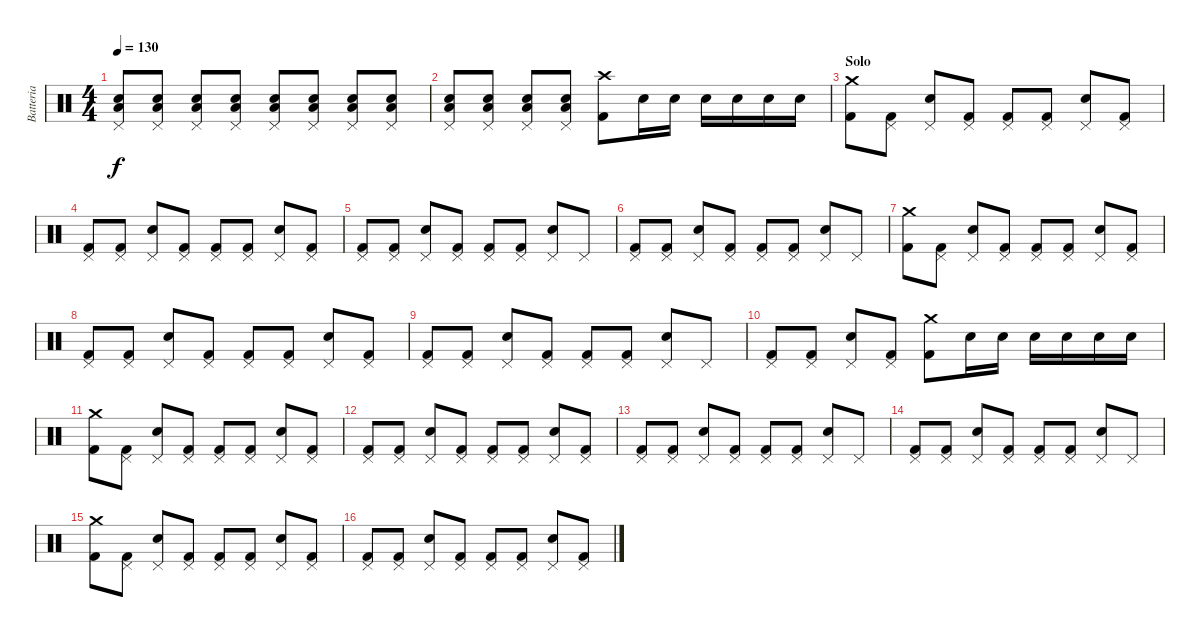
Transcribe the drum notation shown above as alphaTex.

\track ("Batteria" "Batteria") {instrument percussion}
\staff {score}
\articulation defaults
\ts (4 4)
\tempo 130
\clef neutral
\ks c
("Pedal Hi-Hat (hit)" "Electric Snare (hit)" "Low Tom (hit)").8{dy f} ("Pedal Hi-Hat (hit)" "Electric Snare (hit)" "Low Tom (hit)").8 ("Pedal Hi-Hat (hit)" "Electric Snare (hit)" "Low Tom (hit)").8 ("Pedal Hi-Hat (hit)" "Electric Snare (hit)" "Low Tom (hit)").8 ("Pedal Hi-Hat (hit)" "Electric Snare (hit)" "Low Tom (hit)").8 ("Pedal Hi-Hat (hit)" "Electric Snare (hit)" "Low Tom (hit)").8 ("Pedal Hi-Hat (hit)" "Electric Snare (hit)" "Low Tom (hit)").8 ("Pedal Hi-Hat (hit)" "Electric Snare (hit)" "Low Tom (hit)").8 |
("Pedal Hi-Hat (hit)" "Electric Snare (hit)" "Low Tom (hit)").8 ("Pedal Hi-Hat (hit)" "Electric Snare (hit)" "Low Tom (hit)").8 ("Pedal Hi-Hat (hit)" "Electric Snare (hit)" "Low Tom (hit)").8 ("Pedal Hi-Hat (hit)" "Electric Snare (hit)" "Low Tom (hit)").8 ("Crash high (hit)" "Kick (hit) 2").8 "Electric Snare (hit)".16 "Electric Snare (hit)".16 "Electric Snare (hit)".16 "Electric Snare (hit)".16 "Electric Snare (hit)".16 "Electric Snare (hit)".16 |
\section ("" "Solo")
("Crash medium (hit)" "Kick (hit) 2").8 ("Pedal Hi-Hat (hit)" "Kick (hit) 2").8 ("Pedal Hi-Hat (hit)" "Electric Snare (hit)").8 ("Pedal Hi-Hat (hit)" "Kick (hit) 2").8 ("Pedal Hi-Hat (hit)" "Kick (hit) 2").8 ("Pedal Hi-Hat (hit)" "Kick (hit) 2").8 ("Pedal Hi-Hat (hit)" "Electric Snare (hit)").8 ("Pedal Hi-Hat (hit)" "Kick (hit) 2").8 |
("Pedal Hi-Hat (hit)" "Kick (hit) 2").8 ("Pedal Hi-Hat (hit)" "Kick (hit) 2").8 ("Pedal Hi-Hat (hit)" "Electric Snare (hit)").8 ("Pedal Hi-Hat (hit)" "Kick (hit) 2").8 ("Pedal Hi-Hat (hit)" "Kick (hit) 2").8 ("Pedal Hi-Hat (hit)" "Kick (hit) 2").8 ("Pedal Hi-Hat (hit)" "Electric Snare (hit)").8 ("Pedal Hi-Hat (hit)" "Kick (hit) 2").8 |
("Pedal Hi-Hat (hit)" "Kick (hit) 2").8 ("Pedal Hi-Hat (hit)" "Kick (hit) 2").8 ("Pedal Hi-Hat (hit)" "Electric Snare (hit)").8 ("Pedal Hi-Hat (hit)" "Kick (hit) 2").8 ("Pedal Hi-Hat (hit)" "Kick (hit) 2").8 ("Pedal Hi-Hat (hit)" "Kick (hit) 2").8 ("Pedal Hi-Hat (hit)" "Electric Snare (hit)").8 "Pedal Hi-Hat (hit)".8 |
("Pedal Hi-Hat (hit)" "Kick (hit) 2").8 ("Pedal Hi-Hat (hit)" "Kick (hit) 2").8 ("Pedal Hi-Hat (hit)" "Electric Snare (hit)").8 ("Pedal Hi-Hat (hit)" "Kick (hit) 2").8 ("Pedal Hi-Hat (hit)" "Kick (hit) 2").8 ("Pedal Hi-Hat (hit)" "Kick (hit) 2").8 ("Pedal Hi-Hat (hit)" "Electric Snare (hit)").8 "Pedal Hi-Hat (hit)".8 |
("Crash medium (hit)" "Kick (hit) 2").8 ("Pedal Hi-Hat (hit)" "Kick (hit) 2").8 ("Pedal Hi-Hat (hit)" "Electric Snare (hit)").8 ("Pedal Hi-Hat (hit)" "Kick (hit) 2").8 ("Pedal Hi-Hat (hit)" "Kick (hit) 2").8 ("Pedal Hi-Hat (hit)" "Kick (hit) 2").8 ("Pedal Hi-Hat (hit)" "Electric Snare (hit)").8 ("Pedal Hi-Hat (hit)" "Kick (hit) 2").8 |
("Pedal Hi-Hat (hit)" "Kick (hit) 2").8 ("Pedal Hi-Hat (hit)" "Kick (hit) 2").8 ("Pedal Hi-Hat (hit)" "Electric Snare (hit)").8 ("Pedal Hi-Hat (hit)" "Kick (hit) 2").8 ("Pedal Hi-Hat (hit)" "Kick (hit) 2").8 ("Pedal Hi-Hat (hit)" "Kick (hit) 2").8 ("Pedal Hi-Hat (hit)" "Electric Snare (hit)").8 ("Pedal Hi-Hat (hit)" "Kick (hit) 2").8 |
("Pedal Hi-Hat (hit)" "Kick (hit) 2").8 ("Pedal Hi-Hat (hit)" "Kick (hit) 2").8 ("Pedal Hi-Hat (hit)" "Electric Snare (hit)").8 ("Pedal Hi-Hat (hit)" "Kick (hit) 2").8 ("Pedal Hi-Hat (hit)" "Kick (hit) 2").8 ("Pedal Hi-Hat (hit)" "Kick (hit) 2").8 ("Pedal Hi-Hat (hit)" "Electric Snare (hit)").8 "Pedal Hi-Hat (hit)".8 |
("Pedal Hi-Hat (hit)" "Kick (hit) 2").8 ("Pedal Hi-Hat (hit)" "Kick (hit) 2").8 ("Pedal Hi-Hat (hit)" "Electric Snare (hit)").8 ("Pedal Hi-Hat (hit)" "Kick (hit) 2").8 ("Crash medium (hit)" "Kick (hit) 2").8 "Electric Snare (hit)".16 "Electric Snare (hit)".16 "Electric Snare (hit)".16 "Electric Snare (hit)".16 "Electric Snare (hit)".16 "Electric Snare (hit)".16 |
("Crash medium (hit)" "Kick (hit) 2").8 ("Pedal Hi-Hat (hit)" "Kick (hit) 2").8 ("Pedal Hi-Hat (hit)" "Electric Snare (hit)").8 ("Pedal Hi-Hat (hit)" "Kick (hit) 2").8 ("Pedal Hi-Hat (hit)" "Kick (hit) 2").8 ("Pedal Hi-Hat (hit)" "Kick (hit) 2").8 ("Pedal Hi-Hat (hit)" "Electric Snare (hit)").8 ("Pedal Hi-Hat (hit)" "Kick (hit) 2").8 |
("Pedal Hi-Hat (hit)" "Kick (hit) 2").8 ("Pedal Hi-Hat (hit)" "Kick (hit) 2").8 ("Pedal Hi-Hat (hit)" "Electric Snare (hit)").8 ("Pedal Hi-Hat (hit)" "Kick (hit) 2").8 ("Pedal Hi-Hat (hit)" "Kick (hit) 2").8 ("Pedal Hi-Hat (hit)" "Kick (hit) 2").8 ("Pedal Hi-Hat (hit)" "Electric Snare (hit)").8 ("Pedal Hi-Hat (hit)" "Kick (hit) 2").8 |
("Pedal Hi-Hat (hit)" "Kick (hit) 2").8 ("Pedal Hi-Hat (hit)" "Kick (hit) 2").8 ("Pedal Hi-Hat (hit)" "Electric Snare (hit)").8 ("Pedal Hi-Hat (hit)" "Kick (hit) 2").8 ("Pedal Hi-Hat (hit)" "Kick (hit) 2").8 ("Pedal Hi-Hat (hit)" "Kick (hit) 2").8 ("Pedal Hi-Hat (hit)" "Electric Snare (hit)").8 "Pedal Hi-Hat (hit)".8 |
("Pedal Hi-Hat (hit)" "Kick (hit) 2").8 ("Pedal Hi-Hat (hit)" "Kick (hit) 2").8 ("Pedal Hi-Hat (hit)" "Electric Snare (hit)").8 ("Pedal Hi-Hat (hit)" "Kick (hit) 2").8 ("Pedal Hi-Hat (hit)" "Kick (hit) 2").8 ("Pedal Hi-Hat (hit)" "Kick (hit) 2").8 ("Pedal Hi-Hat (hit)" "Electric Snare (hit)").8 "Pedal Hi-Hat (hit)".8 |
("Crash medium (hit)" "Kick (hit) 2").8 ("Pedal Hi-Hat (hit)" "Kick (hit) 2").8 ("Pedal Hi-Hat (hit)" "Electric Snare (hit)").8 ("Pedal Hi-Hat (hit)" "Kick (hit) 2").8 ("Pedal Hi-Hat (hit)" "Kick (hit) 2").8 ("Pedal Hi-Hat (hit)" "Kick (hit) 2").8 ("Pedal Hi-Hat (hit)" "Electric Snare (hit)").8 ("Pedal Hi-Hat (hit)" "Kick (hit) 2").8 |
("Pedal Hi-Hat (hit)" "Kick (hit) 2").8 ("Pedal Hi-Hat (hit)" "Kick (hit) 2").8 ("Pedal Hi-Hat (hit)" "Electric Snare (hit)").8 ("Pedal Hi-Hat (hit)" "Kick (hit) 2").8 ("Pedal Hi-Hat (hit)" "Kick (hit) 2").8 ("Pedal Hi-Hat (hit)" "Kick (hit) 2").8 ("Pedal Hi-Hat (hit)" "Electric Snare (hit)").8 ("Pedal Hi-Hat (hit)" "Kick (hit) 2").8
